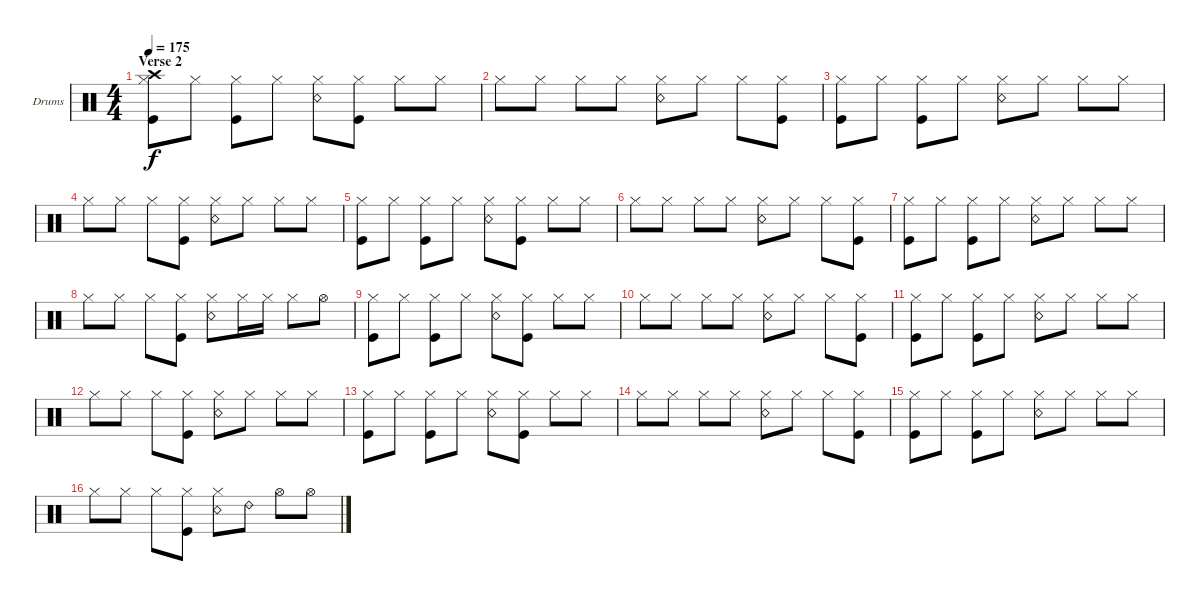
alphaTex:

\bracketExtendMode groupsimilarinstruments
\firstSystemTrackNameOrientation horizontal
\otherSystemsTrackNameOrientation horizontal
\track ("Kanky Lora" "Drums") {instrument percussion}
\staff {score}
\articulation defaults
\ts (4 4)
\section ("" "Verse 2")
\tempo 175
\clef neutral
\ks c
("Hi-Hat (closed)" "Kick (hit)" "Crash high (hit)").8{dy f} "Hi-Hat (closed)".8 ("Hi-Hat (closed)" "Kick (hit)").8 "Hi-Hat (closed)".8 ("Hi-Hat (closed)" "Snare (rim shot)").8 ("Hi-Hat (closed)" "Kick (hit)").8 "Hi-Hat (closed)".8 "Hi-Hat (closed)".8 |
"Hi-Hat (closed)".8 "Hi-Hat (closed)".8 "Hi-Hat (closed)".8 "Hi-Hat (closed)".8 ("Hi-Hat (closed)" "Snare (rim shot)").8 "Hi-Hat (closed)".8 "Hi-Hat (closed)".8 ("Hi-Hat (closed)" "Kick (hit)").8 |
("Hi-Hat (closed)" "Kick (hit)").8 "Hi-Hat (closed)".8 ("Hi-Hat (closed)" "Kick (hit)").8 "Hi-Hat (closed)".8 ("Hi-Hat (closed)" "Snare (rim shot)").8 "Hi-Hat (closed)".8 "Hi-Hat (closed)".8 "Hi-Hat (closed)".8 |
"Hi-Hat (closed)".8 "Hi-Hat (closed)".8 "Hi-Hat (closed)".8 ("Hi-Hat (closed)" "Kick (hit)").8 ("Hi-Hat (closed)" "Snare (rim shot)").8 "Hi-Hat (closed)".8 "Hi-Hat (closed)".8 "Hi-Hat (closed)".8 |
("Hi-Hat (closed)" "Kick (hit)").8 "Hi-Hat (closed)".8 ("Hi-Hat (closed)" "Kick (hit)").8 "Hi-Hat (closed)".8 ("Hi-Hat (closed)" "Snare (rim shot)").8 ("Hi-Hat (closed)" "Kick (hit)").8 "Hi-Hat (closed)".8 "Hi-Hat (closed)".8 |
"Hi-Hat (closed)".8 "Hi-Hat (closed)".8 "Hi-Hat (closed)".8 "Hi-Hat (closed)".8 ("Hi-Hat (closed)" "Snare (rim shot)").8 "Hi-Hat (closed)".8 "Hi-Hat (closed)".8 ("Hi-Hat (closed)" "Kick (hit)").8 |
("Hi-Hat (closed)" "Kick (hit)").8 "Hi-Hat (closed)".8 ("Hi-Hat (closed)" "Kick (hit)").8 "Hi-Hat (closed)".8 ("Hi-Hat (closed)" "Snare (rim shot)").8 "Hi-Hat (closed)".8 "Hi-Hat (closed)".8 "Hi-Hat (closed)".8 |
"Hi-Hat (closed)".8 "Hi-Hat (closed)".8 "Hi-Hat (closed)".8 ("Hi-Hat (closed)" "Kick (hit)").8 ("Hi-Hat (closed)" "Snare (rim shot)").8 "Hi-Hat (closed)".16 "Hi-Hat (closed)".16 "Hi-Hat (closed)".8 "Hi-Hat (open)".8 |
("Hi-Hat (closed)" "Kick (hit)").8 "Hi-Hat (closed)".8 ("Hi-Hat (closed)" "Kick (hit)").8 "Hi-Hat (closed)".8 ("Hi-Hat (closed)" "Snare (rim shot)").8 ("Hi-Hat (closed)" "Kick (hit)").8 "Hi-Hat (closed)".8 "Hi-Hat (closed)".8 |
"Hi-Hat (closed)".8 "Hi-Hat (closed)".8 "Hi-Hat (closed)".8 "Hi-Hat (closed)".8 ("Hi-Hat (closed)" "Snare (rim shot)").8 "Hi-Hat (closed)".8 "Hi-Hat (closed)".8 ("Hi-Hat (closed)" "Kick (hit)").8 |
("Hi-Hat (closed)" "Kick (hit)").8 "Hi-Hat (closed)".8 ("Hi-Hat (closed)" "Kick (hit)").8 "Hi-Hat (closed)".8 ("Hi-Hat (closed)" "Snare (rim shot)").8 "Hi-Hat (closed)".8 "Hi-Hat (closed)".8 "Hi-Hat (closed)".8 |
"Hi-Hat (closed)".8 "Hi-Hat (closed)".8 "Hi-Hat (closed)".8 ("Hi-Hat (closed)" "Kick (hit)").8 ("Hi-Hat (closed)" "Snare (rim shot)").8 "Hi-Hat (closed)".8 "Hi-Hat (closed)".8 "Hi-Hat (closed)".8 |
("Hi-Hat (closed)" "Kick (hit)").8 "Hi-Hat (closed)".8 ("Hi-Hat (closed)" "Kick (hit)").8 "Hi-Hat (closed)".8 ("Hi-Hat (closed)" "Snare (rim shot)").8 ("Hi-Hat (closed)" "Kick (hit)").8 "Hi-Hat (closed)".8 "Hi-Hat (closed)".8 |
"Hi-Hat (closed)".8 "Hi-Hat (closed)".8 "Hi-Hat (closed)".8 "Hi-Hat (closed)".8 ("Hi-Hat (closed)" "Snare (rim shot)").8 "Hi-Hat (closed)".8 "Hi-Hat (closed)".8 ("Hi-Hat (closed)" "Kick (hit)").8 |
("Hi-Hat (closed)" "Kick (hit)").8 "Hi-Hat (closed)".8 ("Hi-Hat (closed)" "Kick (hit)").8 "Hi-Hat (closed)".8 ("Hi-Hat (closed)" "Snare (rim shot)").8 "Hi-Hat (closed)".8 "Hi-Hat (closed)".8 "Hi-Hat (closed)".8 |
"Hi-Hat (closed)".8 "Hi-Hat (closed)".8 "Hi-Hat (closed)".8 ("Hi-Hat (closed)" "Kick (hit)").8 ("Hi-Hat (closed)" "Snare (rim shot)").8 "Ride (bell) 2".8 "Hi-Hat (open)".8 "Hi-Hat (open)".8
